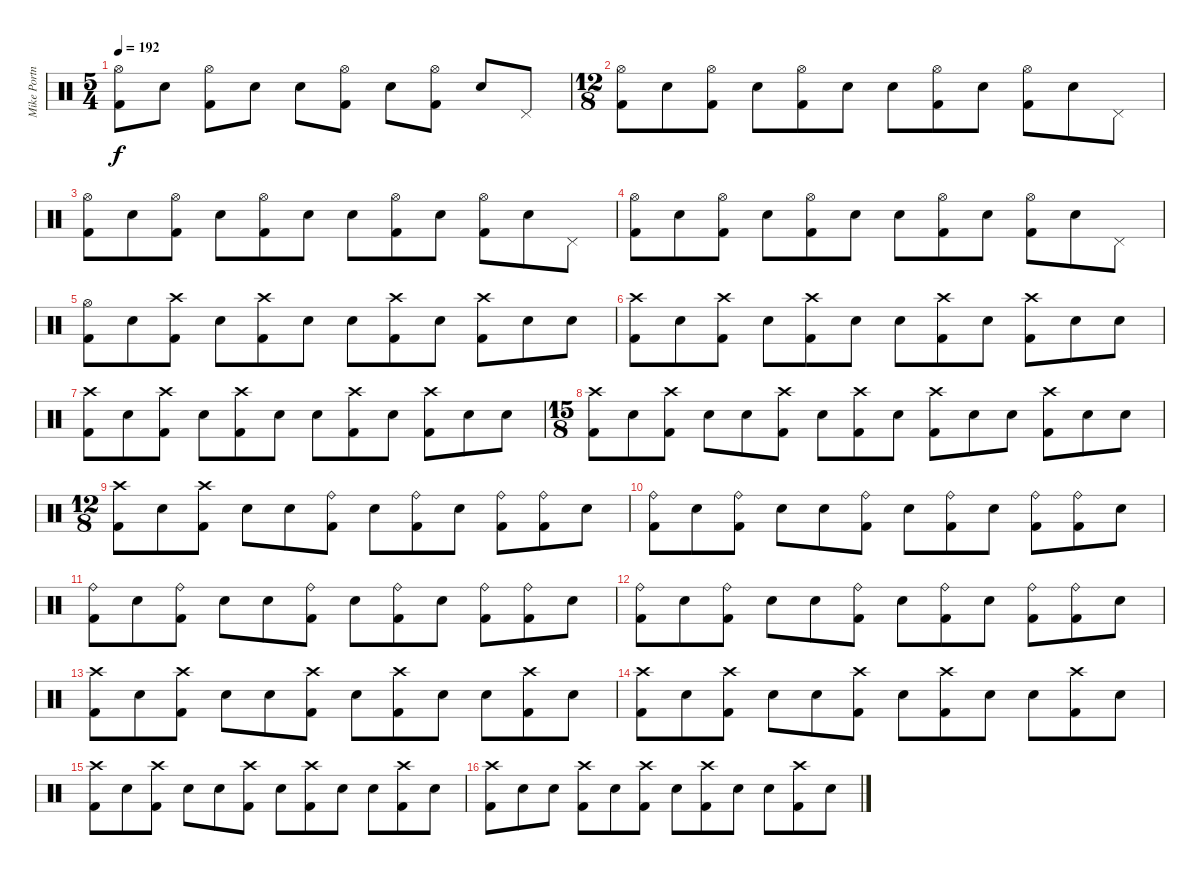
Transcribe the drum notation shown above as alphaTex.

\track ("Mike Portnoy" "Mike Portn") {instrument percussion}
\staff {score}
\articulation defaults
\ts (5 4)
\tempo 192
\clef neutral
\ks c
("Hi-Hat (open)" "Kick (hit) 2").8{dy f} "Snare (hit) 2".8 ("Hi-Hat (open)" "Kick (hit) 2").8 "Snare (hit) 2".8 "Snare (hit) 2".8 ("Hi-Hat (open)" "Kick (hit) 2").8 "Snare (hit) 2".8 ("Hi-Hat (open)" "Kick (hit) 2").8 "Snare (hit) 2".8 "Pedal Hi-Hat (hit)".8 |
\ts (12 8)
("Hi-Hat (open)" "Kick (hit) 2").8 "Snare (hit) 2".8 ("Hi-Hat (open)" "Kick (hit) 2").8 "Snare (hit) 2".8 ("Hi-Hat (open)" "Kick (hit) 2").8 "Snare (hit) 2".8 "Snare (hit) 2".8 ("Hi-Hat (open)" "Kick (hit) 2").8 "Snare (hit) 2".8 ("Hi-Hat (open)" "Kick (hit) 2").8 "Snare (hit) 2".8 "Pedal Hi-Hat (hit)".8 |
("Hi-Hat (open)" "Kick (hit) 2").8 "Snare (hit) 2".8 ("Hi-Hat (open)" "Kick (hit) 2").8 "Snare (hit) 2".8 ("Hi-Hat (open)" "Kick (hit) 2").8 "Snare (hit) 2".8 "Snare (hit) 2".8 ("Hi-Hat (open)" "Kick (hit) 2").8 "Snare (hit) 2".8 ("Hi-Hat (open)" "Kick (hit) 2").8 "Snare (hit) 2".8 "Pedal Hi-Hat (hit)".8 |
("Hi-Hat (open)" "Kick (hit) 2").8 "Snare (hit) 2".8 ("Hi-Hat (open)" "Kick (hit) 2").8 "Snare (hit) 2".8 ("Hi-Hat (open)" "Kick (hit) 2").8 "Snare (hit) 2".8 "Snare (hit) 2".8 ("Hi-Hat (open)" "Kick (hit) 2").8 "Snare (hit) 2".8 ("Hi-Hat (open)" "Kick (hit) 2").8 "Snare (hit) 2".8 "Pedal Hi-Hat (hit)".8 |
("Hi-Hat (open)" "Kick (hit) 2").8 "Snare (hit) 2".8 ("Crash high (hit)" "Kick (hit) 2").8 "Snare (hit) 2".8 ("Crash high (hit)" "Kick (hit) 2").8 "Snare (hit) 2".8 "Snare (hit) 2".8 ("Crash high (hit)" "Kick (hit) 2").8 "Snare (hit) 2".8 ("Crash high (hit)" "Kick (hit) 2").8 "Snare (hit) 2".8 "Snare (hit) 2".8 |
("Crash high (hit)" "Kick (hit) 2").8 "Snare (hit) 2".8 ("Crash high (hit)" "Kick (hit) 2").8 "Snare (hit) 2".8 ("Crash high (hit)" "Kick (hit) 2").8 "Snare (hit) 2".8 "Snare (hit) 2".8 ("Crash high (hit)" "Kick (hit) 2").8 "Snare (hit) 2".8 ("Crash high (hit)" "Kick (hit) 2").8 "Snare (hit) 2".8 "Snare (hit) 2".8 |
("Crash high (hit)" "Kick (hit) 2").8 "Snare (hit) 2".8 ("Crash high (hit)" "Kick (hit) 2").8 "Snare (hit) 2".8 ("Crash high (hit)" "Kick (hit) 2").8 "Snare (hit) 2".8 "Snare (hit) 2".8 ("Crash high (hit)" "Kick (hit) 2").8 "Snare (hit) 2".8 ("Crash high (hit)" "Kick (hit) 2").8 "Snare (hit) 2".8 "Snare (hit) 2".8 |
\ts (15 8)
("Crash high (hit)" "Kick (hit) 2").8 "Snare (hit) 2".8 ("Crash high (hit)" "Kick (hit) 2").8 "Snare (hit) 2".8 "Snare (hit) 2".8 ("Crash high (hit)" "Kick (hit) 2").8 "Snare (hit) 2".8 ("Crash high (hit)" "Kick (hit) 2").8 "Snare (hit) 2".8 ("Crash high (hit)" "Kick (hit) 2").8 "Snare (hit) 2".8 "Snare (hit) 2".8 ("Crash high (hit)" "Kick (hit) 2").8 "Snare (hit) 2".8 "Snare (hit) 2".8 |
\ts (12 8)
("Crash high (hit)" "Kick (hit) 2").8 "Snare (hit) 2".8 ("Crash high (hit)" "Kick (hit) 2").8 "Snare (hit) 2".8 "Snare (hit) 2".8 ("Ride (bell)" "Kick (hit) 2").8 "Snare (hit) 2".8 ("Ride (bell)" "Kick (hit) 2").8 "Snare (hit) 2".8 ("Ride (bell)" "Kick (hit) 2").8 ("Ride (bell)" "Kick (hit) 2").8 "Snare (hit) 2".8 |
("Ride (bell)" "Kick (hit) 2").8 "Snare (hit) 2".8 ("Ride (bell)" "Kick (hit) 2").8 "Snare (hit) 2".8 "Snare (hit) 2".8 ("Ride (bell)" "Kick (hit) 2").8 "Snare (hit) 2".8 ("Ride (bell)" "Kick (hit) 2").8 "Snare (hit) 2".8 ("Ride (bell)" "Kick (hit) 2").8 ("Ride (bell)" "Kick (hit) 2").8 "Snare (hit) 2".8 |
("Ride (bell)" "Kick (hit) 2").8 "Snare (hit) 2".8 ("Ride (bell)" "Kick (hit) 2").8 "Snare (hit) 2".8 "Snare (hit) 2".8 ("Ride (bell)" "Kick (hit) 2").8 "Snare (hit) 2".8 ("Ride (bell)" "Kick (hit) 2").8 "Snare (hit) 2".8 ("Ride (bell)" "Kick (hit) 2").8 ("Ride (bell)" "Kick (hit) 2").8 "Snare (hit) 2".8 |
("Ride (bell)" "Kick (hit) 2").8 "Snare (hit) 2".8 ("Ride (bell)" "Kick (hit) 2").8 "Snare (hit) 2".8 "Snare (hit) 2".8 ("Ride (bell)" "Kick (hit) 2").8 "Snare (hit) 2".8 ("Ride (bell)" "Kick (hit) 2").8 "Snare (hit) 2".8 ("Ride (bell)" "Kick (hit) 2").8 ("Ride (bell)" "Kick (hit) 2").8 "Snare (hit) 2".8 |
("Crash high (hit)" "Kick (hit) 2").8 "Snare (hit) 2".8 ("Crash high (hit)" "Kick (hit) 2").8 "Snare (hit) 2".8 "Snare (hit) 2".8 ("Crash high (hit)" "Kick (hit) 2").8 "Snare (hit) 2".8 ("Crash high (hit)" "Kick (hit) 2").8 "Snare (hit) 2".8 "Snare (hit) 2".8 ("Crash high (hit)" "Kick (hit) 2").8 "Snare (hit) 2".8 |
("Crash high (hit)" "Kick (hit) 2").8 "Snare (hit) 2".8 ("Crash high (hit)" "Kick (hit) 2").8 "Snare (hit) 2".8 "Snare (hit) 2".8 ("Crash high (hit)" "Kick (hit) 2").8 "Snare (hit) 2".8 ("Crash high (hit)" "Kick (hit) 2").8 "Snare (hit) 2".8 "Snare (hit) 2".8 ("Crash high (hit)" "Kick (hit) 2").8 "Snare (hit) 2".8 |
("Crash high (hit)" "Kick (hit) 2").8 "Snare (hit) 2".8 ("Crash high (hit)" "Kick (hit) 2").8 "Snare (hit) 2".8 "Snare (hit) 2".8 ("Crash high (hit)" "Kick (hit) 2").8 "Snare (hit) 2".8 ("Crash high (hit)" "Kick (hit) 2").8 "Snare (hit) 2".8 "Snare (hit) 2".8 ("Crash high (hit)" "Kick (hit) 2").8 "Snare (hit) 2".8 |
("Crash high (hit)" "Kick (hit) 2").8 "Snare (hit) 2".8 "Snare (hit) 2".8 ("Crash high (hit)" "Kick (hit) 2").8 "Snare (hit) 2".8 ("Crash high (hit)" "Kick (hit) 2").8 "Snare (hit) 2".8 ("Crash high (hit)" "Kick (hit) 2").8 "Snare (hit) 2".8 "Snare (hit) 2".8 ("Crash high (hit)" "Kick (hit) 2").8 "Snare (hit) 2".8
